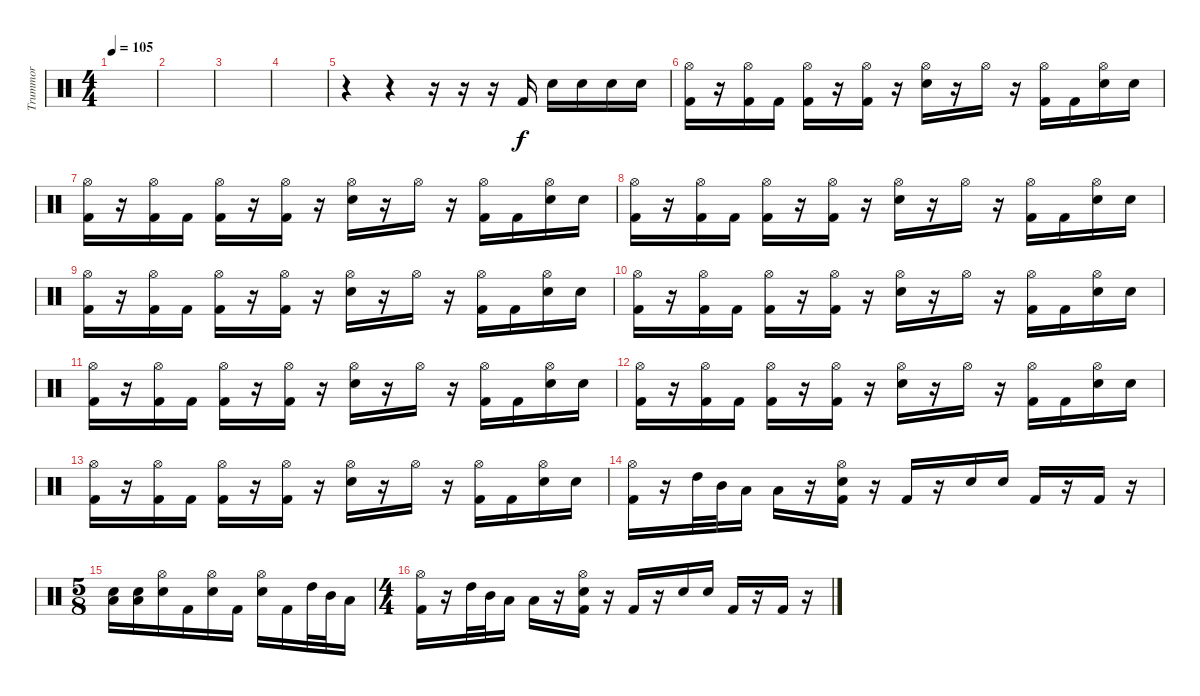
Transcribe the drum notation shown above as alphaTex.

\track ("Trummor" "Trummor") {instrument percussion}
\staff {score}
\articulation defaults
\ts (4 4)
\tempo 105
\clef neutral
\ks c
|
|
|
|
r.4 r.4 r.16 r.16 r.16 "Kick (hit) 2".16{dy f} "Snare (hit) 2".16 "Snare (hit) 2".16 "Snare (hit) 2".16 "Snare (hit) 2".16 |
("Hi-Hat (open)" "Kick (hit) 2").16 r.16 ("Hi-Hat (open)" "Kick (hit) 2").16 "Kick (hit) 2".16 ("Hi-Hat (open)" "Kick (hit) 2").16 r.16 ("Hi-Hat (open)" "Kick (hit) 2").16 r.16 ("Hi-Hat (open)" "Snare (hit) 2").16 r.16 "Hi-Hat (open)".16 r.16 ("Hi-Hat (open)" "Kick (hit) 2").16 "Kick (hit) 2".16 ("Hi-Hat (open)" "Snare (hit) 2").16 "Snare (hit) 2".16 |
("Hi-Hat (open)" "Kick (hit) 2").16 r.16 ("Hi-Hat (open)" "Kick (hit) 2").16 "Kick (hit) 2".16 ("Hi-Hat (open)" "Kick (hit) 2").16 r.16 ("Hi-Hat (open)" "Kick (hit) 2").16 r.16 ("Hi-Hat (open)" "Snare (hit) 2").16 r.16 "Hi-Hat (open)".16 r.16 ("Hi-Hat (open)" "Kick (hit) 2").16 "Kick (hit) 2".16 ("Hi-Hat (open)" "Snare (hit) 2").16 "Snare (hit) 2".16 |
("Hi-Hat (open)" "Kick (hit) 2").16 r.16 ("Hi-Hat (open)" "Kick (hit) 2").16 "Kick (hit) 2".16 ("Hi-Hat (open)" "Kick (hit) 2").16 r.16 ("Hi-Hat (open)" "Kick (hit) 2").16 r.16 ("Hi-Hat (open)" "Snare (hit) 2").16 r.16 "Hi-Hat (open)".16 r.16 ("Hi-Hat (open)" "Kick (hit) 2").16 "Kick (hit) 2".16 ("Hi-Hat (open)" "Snare (hit) 2").16 "Snare (hit) 2".16 |
("Hi-Hat (open)" "Kick (hit) 2").16 r.16 ("Hi-Hat (open)" "Kick (hit) 2").16 "Kick (hit) 2".16 ("Hi-Hat (open)" "Kick (hit) 2").16 r.16 ("Hi-Hat (open)" "Kick (hit) 2").16 r.16 ("Hi-Hat (open)" "Snare (hit) 2").16 r.16 "Hi-Hat (open)".16 r.16 ("Hi-Hat (open)" "Kick (hit) 2").16 "Kick (hit) 2".16 ("Hi-Hat (open)" "Snare (hit) 2").16 "Snare (hit) 2".16 |
("Hi-Hat (open)" "Kick (hit) 2").16 r.16 ("Hi-Hat (open)" "Kick (hit) 2").16 "Kick (hit) 2".16 ("Hi-Hat (open)" "Kick (hit) 2").16 r.16 ("Hi-Hat (open)" "Kick (hit) 2").16 r.16 ("Hi-Hat (open)" "Snare (hit) 2").16 r.16 "Hi-Hat (open)".16 r.16 ("Hi-Hat (open)" "Kick (hit) 2").16 "Kick (hit) 2".16 ("Hi-Hat (open)" "Snare (hit) 2").16 "Snare (hit) 2".16 |
("Hi-Hat (open)" "Kick (hit) 2").16 r.16 ("Hi-Hat (open)" "Kick (hit) 2").16 "Kick (hit) 2".16 ("Hi-Hat (open)" "Kick (hit) 2").16 r.16 ("Hi-Hat (open)" "Kick (hit) 2").16 r.16 ("Hi-Hat (open)" "Snare (hit) 2").16 r.16 "Hi-Hat (open)".16 r.16 ("Hi-Hat (open)" "Kick (hit) 2").16 "Kick (hit) 2".16 ("Hi-Hat (open)" "Snare (hit) 2").16 "Snare (hit) 2".16 |
("Hi-Hat (open)" "Kick (hit) 2").16 r.16 ("Hi-Hat (open)" "Kick (hit) 2").16 "Kick (hit) 2".16 ("Hi-Hat (open)" "Kick (hit) 2").16 r.16 ("Hi-Hat (open)" "Kick (hit) 2").16 r.16 ("Hi-Hat (open)" "Snare (hit) 2").16 r.16 "Hi-Hat (open)".16 r.16 ("Hi-Hat (open)" "Kick (hit) 2").16 "Kick (hit) 2".16 ("Hi-Hat (open)" "Snare (hit) 2").16 "Snare (hit) 2".16 |
("Hi-Hat (open)" "Kick (hit) 2").16 r.16 ("Hi-Hat (open)" "Kick (hit) 2").16 "Kick (hit) 2".16 ("Hi-Hat (open)" "Kick (hit) 2").16 r.16 ("Hi-Hat (open)" "Kick (hit) 2").16 r.16 ("Hi-Hat (open)" "Snare (hit) 2").16 r.16 "Hi-Hat (open)".16 r.16 ("Hi-Hat (open)" "Kick (hit) 2").16 "Kick (hit) 2".16 ("Hi-Hat (open)" "Snare (hit) 2").16 "Snare (hit) 2".16 |
("Hi-Hat (open)" "Kick (hit) 2").16 r.16 "High Tom (hit)".32 "Mid Tom (hit)".32 "Low Tom (hit)".16 "Low Floor Tom (hit)".16 r.16 ("Hi-Hat (open)" "Snare (hit) 2" "Kick (hit) 2").16 r.16 "Kick (hit) 2".16 r.16 "Snare (hit) 2".16 "Snare (hit) 2".16 "Kick (hit) 2".16 r.16 "Kick (hit) 2".16 r.16 |
\ts (5 8)
("Snare (hit) 2" "Low Floor Tom (hit)").16 ("Snare (hit) 2" "Low Floor Tom (hit)").16 ("Hi-Hat (open)" "Snare (hit) 2").16 "Kick (hit) 2".16 ("Hi-Hat (open)" "Snare (hit) 2").16 "Kick (hit) 2".16 ("Hi-Hat (open)" "Snare (hit) 2").16 "Kick (hit) 2".16 "High Tom (hit)".32 "Mid Tom (hit)".32 "Low Tom (hit)".16 |
\ts (4 4)
("Hi-Hat (open)" "Kick (hit) 2").16 r.16 "High Tom (hit)".32 "Mid Tom (hit)".32 "Low Tom (hit)".16 "Low Floor Tom (hit)".16 r.16 ("Hi-Hat (open)" "Snare (hit) 2" "Kick (hit) 2").16 r.16 "Kick (hit) 2".16 r.16 "Snare (hit) 2".16 "Snare (hit) 2".16 "Kick (hit) 2".16 r.16 "Kick (hit) 2".16 r.16
